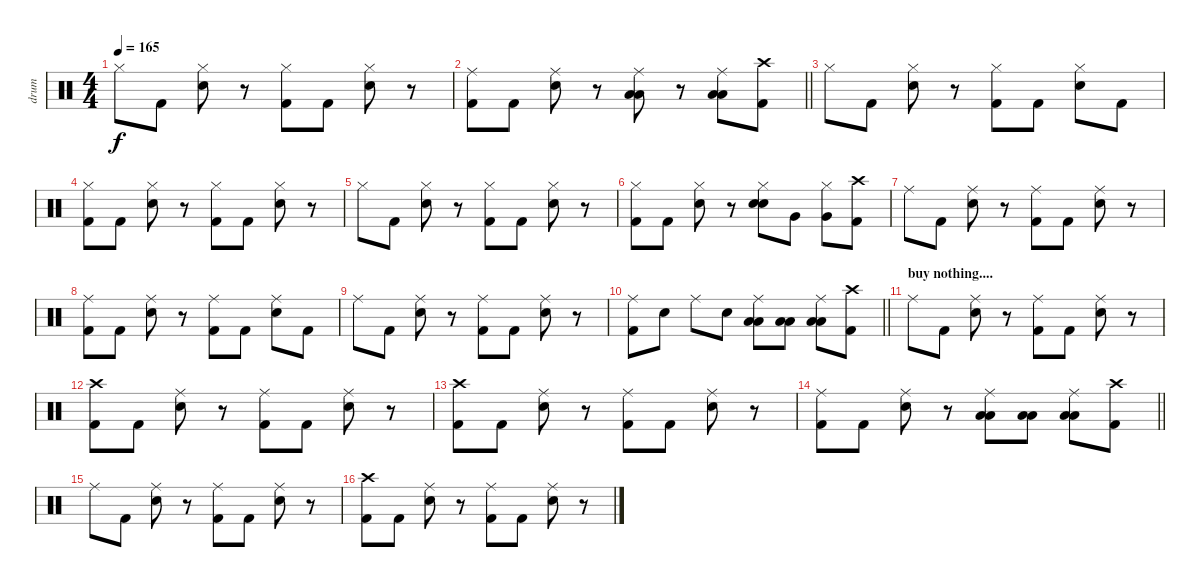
\track ("drum" "drum") {instrument percussion}
\staff {score}
\articulation defaults
\ts (4 4)
\tempo 165
\clef neutral
\ks c "Hi-Hat (closed)".8{dy f} "Kick (hit) 2".8
("Hi-Hat (closed)" "Snare (hit) 2").8 r.8 ("Hi-Hat (closed)" "Kick (hit) 2").8 "Kick (hit) 2".8 ("Hi-Hat (closed)" "Snare (hit) 2").8 r.8 |
\barLineRight lightlight
("Ride (middle)" "Kick (hit) 2").8 "Kick (hit) 2".8 ("Ride (middle)" "Snare (hit) 2").8 r.8 ("Ride (middle)" "Low Tom (hit)" "Low Floor Tom (hit)").8 r.8 ("Ride (middle)" "Low Tom (hit)" "Low Floor Tom (hit)").8 ("Crash high (hit)" "Kick (hit) 2").8 |
"Hi-Hat (closed)".8 "Kick (hit) 2".8 ("Hi-Hat (closed)" "Snare (hit) 2").8 r.8 ("Hi-Hat (closed)" "Kick (hit) 2").8 "Kick (hit) 2".8 ("Hi-Hat (closed)" "Snare (hit) 2").8 "Kick (hit) 2".8 |
("Hi-Hat (closed)" "Kick (hit) 2").8 "Kick (hit) 2".8 ("Hi-Hat (closed)" "Snare (hit) 2").8 r.8 ("Hi-Hat (closed)" "Kick (hit) 2").8 "Kick (hit) 2".8 ("Hi-Hat (closed)" "Snare (hit) 2").8 r.8 |
"Hi-Hat (closed)".8 "Kick (hit) 2".8 ("Hi-Hat (closed)" "Snare (hit) 2").8 r.8 ("Hi-Hat (closed)" "Kick (hit) 2").8 "Kick (hit) 2".8 ("Hi-Hat (closed)" "Snare (hit) 2").8 r.8 |
("Hi-Hat (closed)" "Kick (hit) 2").8 "Kick (hit) 2".8 ("Hi-Hat (closed)" "Snare (hit) 2").8 r.8 ("Hi-Hat (closed)" "Snare (hit) 2" "Snare (hit) 2").8 "Very Low Tom (hit)".8 ("Hi-Hat (closed)" "Very Low Tom (hit)").8 ("Crash high (hit)" "Kick (hit) 2").8 |
"Ride (middle)".8 "Kick (hit) 2".8 ("Ride (middle)" "Snare (hit) 2").8 r.8 ("Ride (middle)" "Kick (hit) 2").8 "Kick (hit) 2".8 ("Ride (middle)" "Snare (hit) 2").8 r.8 |
("Ride (middle)" "Kick (hit) 2").8 "Kick (hit) 2".8 ("Ride (middle)" "Snare (hit) 2").8 r.8 ("Ride (middle)" "Kick (hit) 2").8 "Kick (hit) 2".8 ("Ride (middle)" "Snare (hit) 2").8 "Kick (hit) 2".8 |
"Ride (middle)".8 "Kick (hit) 2".8 ("Ride (middle)" "Snare (hit) 2").8 r.8 ("Ride (middle)" "Kick (hit) 2").8 "Kick (hit) 2".8 ("Ride (middle)" "Snare (hit) 2").8 r.8 |
\barLineRight lightlight
("Ride (middle)" "Kick (hit) 2").8 "Snare (hit) 2".8 "Ride (middle)".8 "Snare (hit) 2".8 ("Ride (middle)" "Low Tom (hit)" "Low Floor Tom (hit)").8 ("Low Tom (hit)" "Low Floor Tom (hit)").8 ("Ride (middle)" "Low Tom (hit)" "Low Floor Tom (hit)").8 ("Crash high (hit)" "Kick (hit) 2").8 |
\section ("" "buy nothing....")
"Ride (middle)".8 "Kick (hit) 2".8 ("Ride (middle)" "Snare (hit) 2").8 r.8 ("Ride (middle)" "Kick (hit) 2").8 "Kick (hit) 2".8 ("Ride (middle)" "Snare (hit) 2").8 r.8 |
("Crash high (hit)" "Kick (hit) 2").8 "Kick (hit) 2".8 ("Ride (middle)" "Snare (hit) 2").8 r.8 ("Ride (middle)" "Kick (hit) 2").8 "Kick (hit) 2".8 ("Ride (middle)" "Snare (hit) 2").8 r.8 |
("Crash high (hit)" "Kick (hit) 2").8 "Kick (hit) 2".8 ("Ride (middle)" "Snare (hit) 2").8 r.8 ("Ride (middle)" "Kick (hit) 2").8 "Kick (hit) 2".8 ("Ride (middle)" "Snare (hit) 2").8 r.8 |
\barLineRight lightlight
("Ride (middle)" "Kick (hit) 2").8 "Kick (hit) 2".8 ("Ride (middle)" "Snare (hit) 2").8 r.8 ("Ride (middle)" "Low Tom (hit)" "Low Floor Tom (hit)").8 ("Low Tom (hit)" "Low Floor Tom (hit)").8 ("Ride (middle)" "Low Tom (hit)" "Low Floor Tom (hit)").8 ("Crash high (hit)" "Kick (hit) 2").8 |
"Ride (middle)".8 "Kick (hit) 2".8 ("Ride (middle)" "Snare (hit) 2").8 r.8 ("Ride (middle)" "Kick (hit) 2").8 "Kick (hit) 2".8 ("Ride (middle)" "Snare (hit) 2").8 r.8 |
("Crash high (hit)" "Kick (hit) 2").8 "Kick (hit) 2".8 ("Ride (middle)" "Snare (hit) 2").8 r.8 ("Ride (middle)" "Kick (hit) 2").8 "Kick (hit) 2".8 ("Ride (middle)" "Snare (hit) 2").8 r.8
